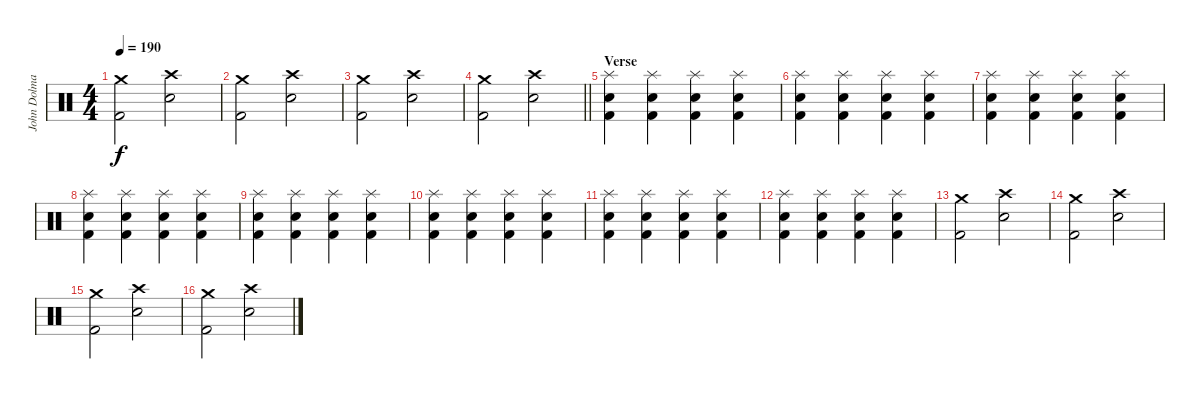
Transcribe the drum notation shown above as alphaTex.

\track ("John Dolmayan" "John Dolma") {instrument percussion}
\staff {score}
\articulation defaults
\ts (4 4)
\tempo 190
\clef neutral
\ks c
("Crash medium (hit)" "Kick (hit) 2").2{dy f} ("Crash high (hit)" "Electric Snare (hit)").2 |
("Crash medium (hit)" "Kick (hit) 2").2 ("Crash high (hit)" "Electric Snare (hit)").2 |
("Crash medium (hit)" "Kick (hit) 2").2 ("Crash high (hit)" "Electric Snare (hit)").2 |
\barLineRight lightlight
("Crash medium (hit)" "Kick (hit) 2").2 ("Crash high (hit)" "Electric Snare (hit)").2 |
\section ("" "Verse")
("Splash (hit)" "Electric Snare (hit)" "Kick (hit) 2").4 ("Splash (hit)" "Electric Snare (hit)" "Kick (hit) 2").4 ("Splash (hit)" "Electric Snare (hit)" "Kick (hit) 2").4 ("Splash (hit)" "Electric Snare (hit)" "Kick (hit) 2").4 |
("Splash (hit)" "Electric Snare (hit)" "Kick (hit) 2").4 ("Splash (hit)" "Electric Snare (hit)" "Kick (hit) 2").4 ("Splash (hit)" "Electric Snare (hit)" "Kick (hit) 2").4 ("Splash (hit)" "Electric Snare (hit)" "Kick (hit) 2").4 |
("Splash (hit)" "Electric Snare (hit)" "Kick (hit) 2").4 ("Splash (hit)" "Electric Snare (hit)" "Kick (hit) 2").4 ("Splash (hit)" "Electric Snare (hit)" "Kick (hit) 2").4 ("Splash (hit)" "Electric Snare (hit)" "Kick (hit) 2").4 |
("Splash (hit)" "Electric Snare (hit)" "Kick (hit) 2").4 ("Splash (hit)" "Electric Snare (hit)" "Kick (hit) 2").4 ("Splash (hit)" "Electric Snare (hit)" "Kick (hit) 2").4 ("Splash (hit)" "Electric Snare (hit)" "Kick (hit) 2").4 |
("Splash (hit)" "Electric Snare (hit)" "Kick (hit) 2").4 ("Splash (hit)" "Electric Snare (hit)" "Kick (hit) 2").4 ("Splash (hit)" "Electric Snare (hit)" "Kick (hit) 2").4 ("Splash (hit)" "Electric Snare (hit)" "Kick (hit) 2").4 |
("Splash (hit)" "Electric Snare (hit)" "Kick (hit) 2").4 ("Splash (hit)" "Electric Snare (hit)" "Kick (hit) 2").4 ("Splash (hit)" "Electric Snare (hit)" "Kick (hit) 2").4 ("Splash (hit)" "Electric Snare (hit)" "Kick (hit) 2").4 |
("Splash (hit)" "Electric Snare (hit)" "Kick (hit) 2").4 ("Splash (hit)" "Electric Snare (hit)" "Kick (hit) 2").4 ("Splash (hit)" "Electric Snare (hit)" "Kick (hit) 2").4 ("Splash (hit)" "Electric Snare (hit)" "Kick (hit) 2").4 |
("Splash (hit)" "Electric Snare (hit)" "Kick (hit) 2").4 ("Splash (hit)" "Electric Snare (hit)" "Kick (hit) 2").4 ("Splash (hit)" "Electric Snare (hit)" "Kick (hit) 2").4 ("Splash (hit)" "Electric Snare (hit)" "Kick (hit) 2").4 |
("Crash medium (hit)" "Kick (hit) 2").2 ("Crash high (hit)" "Electric Snare (hit)").2 |
("Crash medium (hit)" "Kick (hit) 2").2 ("Crash high (hit)" "Electric Snare (hit)").2 |
("Crash medium (hit)" "Kick (hit) 2").2 ("Crash high (hit)" "Electric Snare (hit)").2 |
("Crash medium (hit)" "Kick (hit) 2").2 ("Crash high (hit)" "Electric Snare (hit)").2
